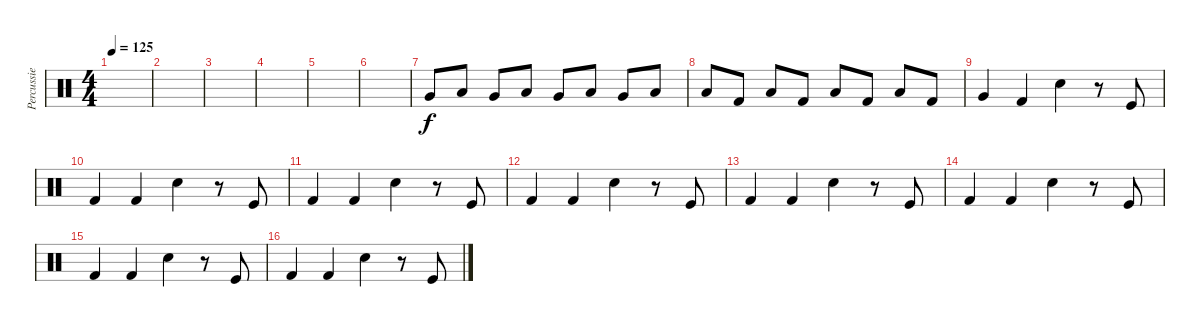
\track ("Percussie" "Percussie") {instrument percussion}
\staff {score}
\articulation defaults
\ts (4 4)
\tempo 125
\clef neutral
\ks c
|
|
|
|
|
|
"Very Low Tom (hit)".8 "Low Floor Tom (hit)".8 "Very Low Tom (hit)".8 "Low Floor Tom (hit)".8 "Very Low Tom (hit)".8 "Low Floor Tom (hit)".8 "Very Low Tom (hit)".8 "Low Floor Tom (hit)".8 |
"Low Floor Tom (hit)".8 "Kick (hit) 2".8 "Low Floor Tom (hit)".8 "Kick (hit) 2".8 "Low Floor Tom (hit)".8 "Kick (hit) 2".8 "Low Floor Tom (hit)".8 "Kick (hit) 2".8 |
"Very Low Tom (hit)".4 "Kick (hit) 2".4 "Electric Snare (hit)".4 r.8 "Kick (hit)".8 |
"Kick (hit) 2".4 "Kick (hit) 2".4 "Electric Snare (hit)".4 r.8 "Kick (hit)".8 |
"Kick (hit) 2".4 "Kick (hit) 2".4 "Electric Snare (hit)".4 r.8 "Kick (hit)".8 |
"Kick (hit) 2".4 "Kick (hit) 2".4 "Electric Snare (hit)".4 r.8 "Kick (hit)".8 |
"Kick (hit) 2".4 "Kick (hit) 2".4 "Electric Snare (hit)".4 r.8 "Kick (hit)".8 |
"Kick (hit) 2".4 "Kick (hit) 2".4 "Electric Snare (hit)".4 r.8 "Kick (hit)".8 |
"Kick (hit) 2".4 "Kick (hit) 2".4 "Electric Snare (hit)".4 r.8 "Kick (hit)".8 |
"Kick (hit) 2".4 "Kick (hit) 2".4 "Electric Snare (hit)".4 r.8 "Kick (hit)".8
